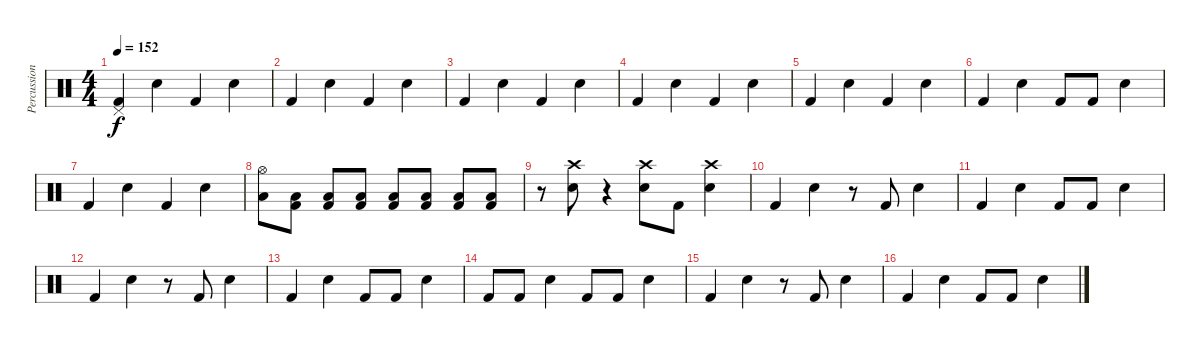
\track ("Percussion" "Percussion") {instrument percussion}
\staff {score}
\articulation defaults
\ts (4 4)
\tempo 152
\clef neutral
\ks c
("Kick (hit) 2" "Pedal Hi-Hat (hit)").4{dy f} "Snare (hit) 2".4 "Kick (hit) 2".4 "Snare (hit) 2".4 |
"Kick (hit) 2".4 "Snare (hit) 2".4 "Kick (hit) 2".4 "Snare (hit) 2".4 |
"Kick (hit) 2".4 "Snare (hit) 2".4 "Kick (hit) 2".4 "Snare (hit) 2".4 |
"Kick (hit) 2".4 "Snare (hit) 2".4 "Kick (hit) 2".4 "Snare (hit) 2".4 |
"Kick (hit) 2".4 "Snare (hit) 2".4 "Kick (hit) 2".4 "Snare (hit) 2".4 |
"Kick (hit) 2".4 "Snare (hit) 2".4 "Kick (hit) 2".8 "Kick (hit) 2".8 "Snare (hit) 2".4 |
"Kick (hit) 2".4 "Snare (hit) 2".4 "Kick (hit) 2".4 "Snare (hit) 2".4 |
("Hi-Hat (open)" "Low Floor Tom (hit)").8 ("Kick (hit) 2" "Low Floor Tom (hit)").8{volume 7} ("Kick (hit) 2" "Low Floor Tom (hit)").8{volume 8} ("Kick (hit) 2" "Low Floor Tom (hit)").8{volume 9} ("Kick (hit) 2" "Low Floor Tom (hit)").8{volume 10} ("Kick (hit) 2" "Low Floor Tom (hit)").8{volume 11} ("Kick (hit) 2" "Low Floor Tom (hit)").8{volume 12} ("Kick (hit) 2" "Low Floor Tom (hit)").8{volume 13} |
r.8 ("Crash high (hit)" "Electric Snare (hit)").8 r.4 ("Crash high (hit)" "Electric Snare (hit)").8 "Kick (hit) 2".8 ("Crash high (hit)" "Electric Snare (hit)").4 |
"Kick (hit) 2".4 "Electric Snare (hit)".4 r.8 "Kick (hit) 2".8 "Electric Snare (hit)".4 |
"Kick (hit) 2".4 "Electric Snare (hit)".4 "Kick (hit) 2".8 "Kick (hit) 2".8 "Electric Snare (hit)".4 |
"Kick (hit) 2".4 "Electric Snare (hit)".4 r.8 "Kick (hit) 2".8 "Electric Snare (hit)".4 |
"Kick (hit) 2".4 "Electric Snare (hit)".4 "Kick (hit) 2".8 "Kick (hit) 2".8 "Electric Snare (hit)".4 |
"Kick (hit) 2".8 "Kick (hit) 2".8 "Electric Snare (hit)".4 "Kick (hit) 2".8 "Kick (hit) 2".8 "Electric Snare (hit)".4 |
"Kick (hit) 2".4 "Electric Snare (hit)".4 r.8 "Kick (hit) 2".8 "Electric Snare (hit)".4 |
"Kick (hit) 2".4 "Electric Snare (hit)".4 "Kick (hit) 2".8 "Kick (hit) 2".8 "Electric Snare (hit)".4
